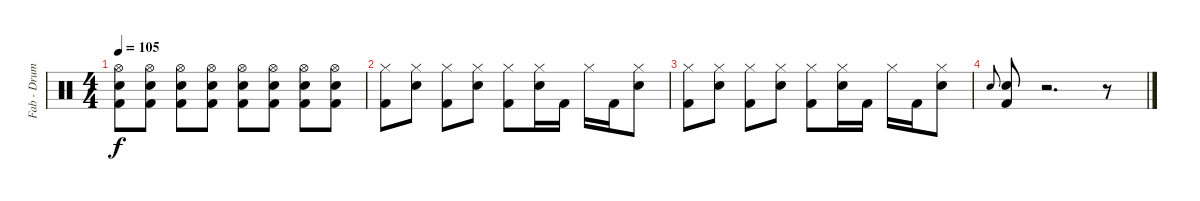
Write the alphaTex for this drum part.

\track ("Fab - Drums MIDI" "Fab - Drum") {instrument percussion}
\staff {score}
\articulation defaults
\ts (4 4)
\tempo 105
\clef neutral
\ks c
("Hi-Hat (open)" "Snare (hit) 2" "Kick (hit) 2").8{dy f} ("Hi-Hat (open)" "Snare (hit) 2" "Kick (hit) 2").8 ("Hi-Hat (open)" "Snare (hit) 2" "Kick (hit) 2").8 ("Hi-Hat (open)" "Snare (hit) 2" "Kick (hit) 2").8 ("Hi-Hat (open)" "Snare (hit) 2" "Kick (hit) 2").8 ("Hi-Hat (open)" "Snare (hit) 2" "Kick (hit) 2").8 ("Hi-Hat (open)" "Snare (hit) 2" "Kick (hit) 2").8 ("Hi-Hat (open)" "Snare (hit) 2" "Kick (hit) 2").8 |
("Hi-Hat (closed)" "Kick (hit) 2").8 ("Hi-Hat (closed)" "Snare (hit) 2").8 ("Hi-Hat (closed)" "Kick (hit) 2").8 ("Hi-Hat (closed)" "Snare (hit) 2").8 ("Hi-Hat (closed)" "Kick (hit) 2").8 ("Hi-Hat (closed)" "Snare (hit) 2").16 "Kick (hit) 2".16 "Hi-Hat (closed)".16 "Kick (hit) 2".16 ("Hi-Hat (closed)" "Snare (hit) 2").8 |
("Hi-Hat (closed)" "Kick (hit) 2").8 ("Hi-Hat (closed)" "Snare (hit) 2").8 ("Hi-Hat (closed)" "Kick (hit) 2").8 ("Hi-Hat (closed)" "Snare (hit) 2").8 ("Hi-Hat (closed)" "Kick (hit) 2").8 ("Hi-Hat (closed)" "Snare (hit) 2").16 "Kick (hit) 2".16 "Hi-Hat (closed)".16 "Kick (hit) 2".16 ("Hi-Hat (closed)" "Snare (hit) 2").8 |
"Snare (hit) 2".8{gr onbeat} ("Snare (hit) 2" "Kick (hit) 2").8 r.2{d} r.8
